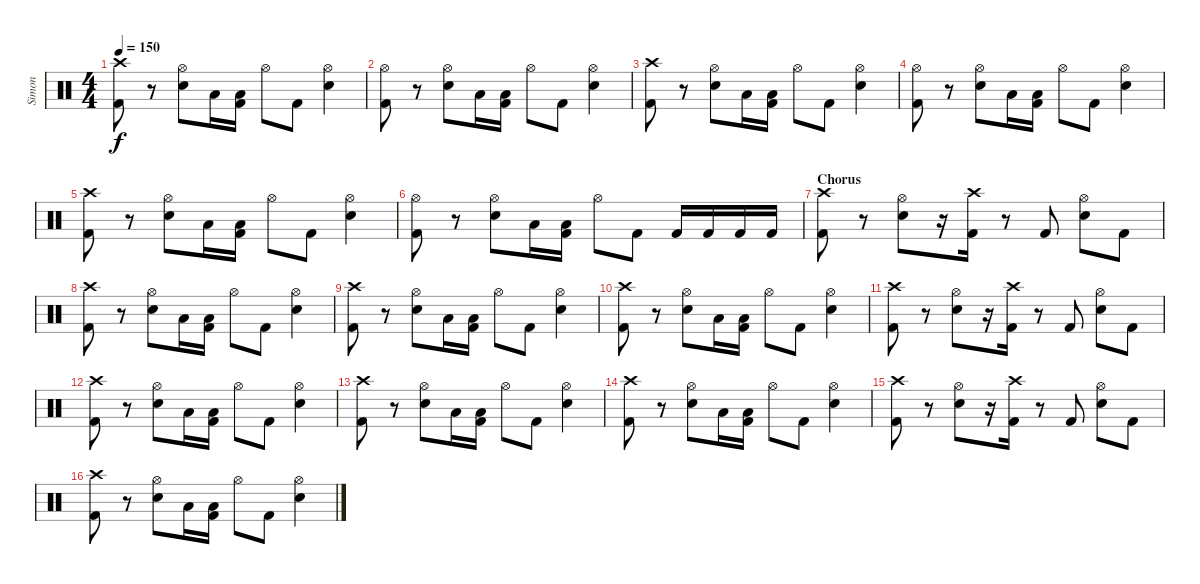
\track ("Simon" "Simon") {instrument percussion}
\staff {score}
\articulation defaults
\ts (4 4)
\tempo 150
\clef neutral
\ks c
("Crash high (hit)" "Kick (hit) 2").8{dy f} r.8 ("Hi-Hat (open)" "Electric Snare (hit)").8 "Low Tom (hit)".16 ("Kick (hit) 2" "Low Tom (hit)").16 "Hi-Hat (open)".8 "Kick (hit) 2".8 ("Hi-Hat (open)" "Electric Snare (hit)").4 |
("Hi-Hat (open)" "Kick (hit) 2").8 r.8 ("Hi-Hat (open)" "Electric Snare (hit)").8 "Low Tom (hit)".16 ("Kick (hit) 2" "Low Tom (hit)").16 "Hi-Hat (open)".8 "Kick (hit) 2".8 ("Hi-Hat (open)" "Electric Snare (hit)").4 |
("Crash high (hit)" "Kick (hit) 2").8 r.8 ("Hi-Hat (open)" "Electric Snare (hit)").8 "Low Tom (hit)".16 ("Kick (hit) 2" "Low Tom (hit)").16 "Hi-Hat (open)".8 "Kick (hit) 2".8 ("Hi-Hat (open)" "Electric Snare (hit)").4 |
("Hi-Hat (open)" "Kick (hit) 2").8 r.8 ("Hi-Hat (open)" "Electric Snare (hit)").8 "Low Tom (hit)".16 ("Kick (hit) 2" "Low Tom (hit)").16 "Hi-Hat (open)".8 "Kick (hit) 2".8 ("Hi-Hat (open)" "Electric Snare (hit)").4 |
("Crash high (hit)" "Kick (hit) 2").8 r.8 ("Hi-Hat (open)" "Electric Snare (hit)").8 "Low Tom (hit)".16 ("Kick (hit) 2" "Low Tom (hit)").16 "Hi-Hat (open)".8 "Kick (hit) 2".8 ("Hi-Hat (open)" "Electric Snare (hit)").4 |
("Hi-Hat (open)" "Kick (hit) 2").8 r.8 ("Hi-Hat (open)" "Electric Snare (hit)").8 "Low Tom (hit)".16 ("Kick (hit) 2" "Low Tom (hit)").16 "Hi-Hat (open)".8 "Kick (hit) 2".8 "Kick (hit) 2".16 "Kick (hit) 2".16 "Kick (hit) 2".16 "Kick (hit) 2".16 |
\section ("" "Chorus")
("Crash high (hit)" "Kick (hit) 2").8 r.8 ("Hi-Hat (open)" "Electric Snare (hit)").8 r.16 ("Crash high (hit)" "Kick (hit) 2").16 r.8 "Kick (hit) 2".8 ("Hi-Hat (open)" "Electric Snare (hit)").8 "Kick (hit) 2".8 |
("Crash high (hit)" "Kick (hit) 2").8 r.8 ("Hi-Hat (open)" "Electric Snare (hit)").8 "Low Tom (hit)".16 ("Kick (hit) 2" "Low Tom (hit)").16 "Hi-Hat (open)".8 "Kick (hit) 2".8 ("Hi-Hat (open)" "Electric Snare (hit)").4 |
("Crash high (hit)" "Kick (hit) 2").8 r.8 ("Hi-Hat (open)" "Electric Snare (hit)").8 "Low Tom (hit)".16 ("Kick (hit) 2" "Low Tom (hit)").16 "Hi-Hat (open)".8 "Kick (hit) 2".8 ("Hi-Hat (open)" "Electric Snare (hit)").4 |
("Crash high (hit)" "Kick (hit) 2").8 r.8 ("Hi-Hat (open)" "Electric Snare (hit)").8 "Low Tom (hit)".16 ("Kick (hit) 2" "Low Tom (hit)").16 "Hi-Hat (open)".8 "Kick (hit) 2".8 ("Hi-Hat (open)" "Electric Snare (hit)").4 |
("Crash high (hit)" "Kick (hit) 2").8 r.8 ("Hi-Hat (open)" "Electric Snare (hit)").8 r.16 ("Crash high (hit)" "Kick (hit) 2").16 r.8 "Kick (hit) 2".8 ("Hi-Hat (open)" "Electric Snare (hit)").8 "Kick (hit) 2".8 |
("Crash high (hit)" "Kick (hit) 2").8 r.8 ("Hi-Hat (open)" "Electric Snare (hit)").8 "Low Tom (hit)".16 ("Kick (hit) 2" "Low Tom (hit)").16 "Hi-Hat (open)".8 "Kick (hit) 2".8 ("Hi-Hat (open)" "Electric Snare (hit)").4 |
("Crash high (hit)" "Kick (hit) 2").8 r.8 ("Hi-Hat (open)" "Electric Snare (hit)").8 "Low Tom (hit)".16 ("Kick (hit) 2" "Low Tom (hit)").16 "Hi-Hat (open)".8 "Kick (hit) 2".8 ("Hi-Hat (open)" "Electric Snare (hit)").4 |
("Crash high (hit)" "Kick (hit) 2").8 r.8 ("Hi-Hat (open)" "Electric Snare (hit)").8 "Low Tom (hit)".16 ("Kick (hit) 2" "Low Tom (hit)").16 "Hi-Hat (open)".8 "Kick (hit) 2".8 ("Hi-Hat (open)" "Electric Snare (hit)").4 |
("Crash high (hit)" "Kick (hit) 2").8 r.8 ("Hi-Hat (open)" "Electric Snare (hit)").8 r.16 ("Crash high (hit)" "Kick (hit) 2").16 r.8 "Kick (hit) 2".8 ("Hi-Hat (open)" "Electric Snare (hit)").8 "Kick (hit) 2".8 |
("Crash high (hit)" "Kick (hit) 2").8 r.8 ("Hi-Hat (open)" "Electric Snare (hit)").8 "Low Tom (hit)".16 ("Kick (hit) 2" "Low Tom (hit)").16 "Hi-Hat (open)".8 "Kick (hit) 2".8 ("Hi-Hat (open)" "Electric Snare (hit)").4
